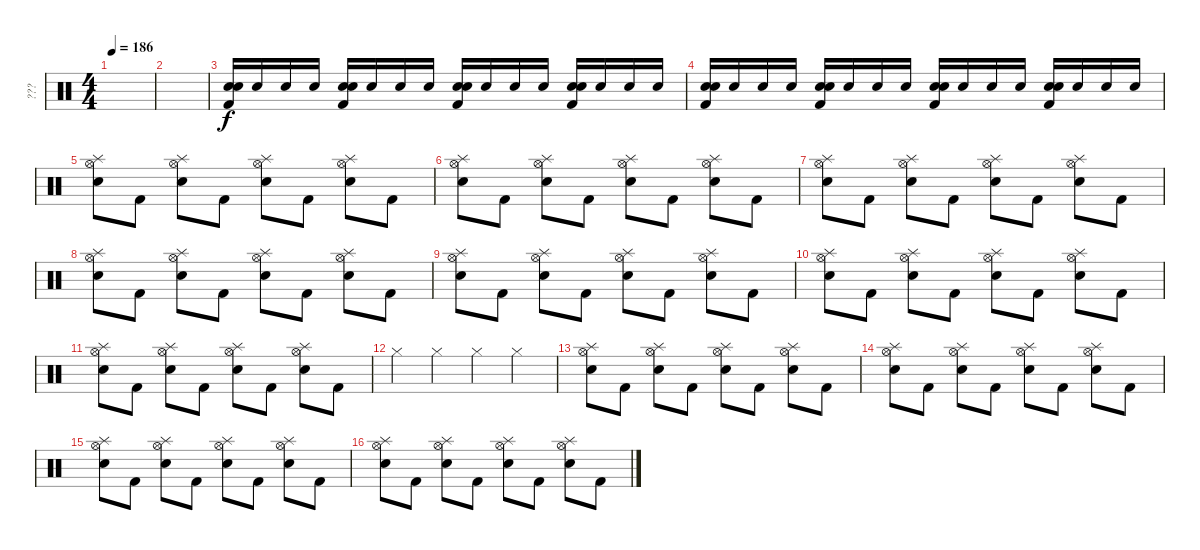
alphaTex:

\track ("???" "???") {instrument percussion}
\staff {score}
\articulation defaults
\ts (4 4)
\tempo 186
\clef neutral
\ks c
|
|
("Electric Snare (hit)" "Snare (hit) 2" "Kick (hit) 2").16{volume 9} "Snare (hit) 2".16 "Snare (hit) 2".16 "Snare (hit) 2".16 ("Electric Snare (hit)" "Snare (hit) 2" "Kick (hit) 2").16 "Snare (hit) 2".16 "Snare (hit) 2".16 "Snare (hit) 2".16 ("Electric Snare (hit)" "Snare (hit) 2" "Kick (hit) 2").16 "Snare (hit) 2".16 "Snare (hit) 2".16 "Snare (hit) 2".16 ("Electric Snare (hit)" "Snare (hit) 2" "Kick (hit) 2").16 "Snare (hit) 2".16 "Snare (hit) 2".16 "Snare (hit) 2".16 |
("Electric Snare (hit)" "Snare (hit) 2" "Kick (hit) 2").16{volume 9} "Snare (hit) 2".16 "Snare (hit) 2".16 "Snare (hit) 2".16 ("Electric Snare (hit)" "Snare (hit) 2" "Kick (hit) 2").16 "Snare (hit) 2".16 "Snare (hit) 2".16 "Snare (hit) 2".16 ("Electric Snare (hit)" "Snare (hit) 2" "Kick (hit) 2").16 "Snare (hit) 2".16 "Snare (hit) 2".16 "Snare (hit) 2".16 ("Electric Snare (hit)" "Snare (hit) 2" "Kick (hit) 2").16 "Snare (hit) 2".16 "Snare (hit) 2".16 "Snare (hit) 2".16 |
("Hi-Hat (open)" "Splash (hit)" "Snare (hit) 2").8{volume 9} "Kick (hit) 2".8 ("Hi-Hat (open)" "Splash (hit)" "Snare (hit) 2").8 "Kick (hit) 2".8 ("Hi-Hat (open)" "Splash (hit)" "Snare (hit) 2").8 "Kick (hit) 2".8 ("Hi-Hat (open)" "Splash (hit)" "Snare (hit) 2").8 "Kick (hit) 2".8 |
("Hi-Hat (open)" "Splash (hit)" "Snare (hit) 2").8{volume 9} "Kick (hit) 2".8 ("Hi-Hat (open)" "Splash (hit)" "Snare (hit) 2").8 "Kick (hit) 2".8 ("Hi-Hat (open)" "Splash (hit)" "Snare (hit) 2").8 "Kick (hit) 2".8 ("Hi-Hat (open)" "Splash (hit)" "Snare (hit) 2").8 "Kick (hit) 2".8 |
("Hi-Hat (open)" "Splash (hit)" "Snare (hit) 2").8{volume 9} "Kick (hit) 2".8 ("Hi-Hat (open)" "Splash (hit)" "Snare (hit) 2").8 "Kick (hit) 2".8 ("Hi-Hat (open)" "Splash (hit)" "Snare (hit) 2").8 "Kick (hit) 2".8 ("Hi-Hat (open)" "Splash (hit)" "Snare (hit) 2").8 "Kick (hit) 2".8 |
("Hi-Hat (open)" "Splash (hit)" "Snare (hit) 2").8{volume 9} "Kick (hit) 2".8 ("Hi-Hat (open)" "Splash (hit)" "Snare (hit) 2").8 "Kick (hit) 2".8 ("Hi-Hat (open)" "Splash (hit)" "Snare (hit) 2").8 "Kick (hit) 2".8 ("Hi-Hat (open)" "Splash (hit)" "Snare (hit) 2").8 "Kick (hit) 2".8 |
("Hi-Hat (open)" "Splash (hit)" "Snare (hit) 2").8{volume 9} "Kick (hit) 2".8 ("Hi-Hat (open)" "Splash (hit)" "Snare (hit) 2").8 "Kick (hit) 2".8 ("Hi-Hat (open)" "Splash (hit)" "Snare (hit) 2").8 "Kick (hit) 2".8 ("Hi-Hat (open)" "Splash (hit)" "Snare (hit) 2").8 "Kick (hit) 2".8 |
("Hi-Hat (open)" "Splash (hit)" "Snare (hit) 2").8{volume 9} "Kick (hit) 2".8 ("Hi-Hat (open)" "Splash (hit)" "Snare (hit) 2").8 "Kick (hit) 2".8 ("Hi-Hat (open)" "Splash (hit)" "Snare (hit) 2").8 "Kick (hit) 2".8 ("Hi-Hat (open)" "Splash (hit)" "Snare (hit) 2").8 "Kick (hit) 2".8 |
("Hi-Hat (open)" "Splash (hit)" "Snare (hit) 2").8{volume 9} "Kick (hit) 2".8 ("Hi-Hat (open)" "Splash (hit)" "Snare (hit) 2").8 "Kick (hit) 2".8 ("Hi-Hat (open)" "Splash (hit)" "Snare (hit) 2").8 "Kick (hit) 2".8 ("Hi-Hat (open)" "Splash (hit)" "Snare (hit) 2").8 "Kick (hit) 2".8 |
"Hi-Hat (closed)".4 "Hi-Hat (closed)".4 "Hi-Hat (closed)".4 "Hi-Hat (closed)".4 |
("Hi-Hat (open)" "Splash (hit)" "Snare (hit) 2").8{volume 9} "Kick (hit) 2".8 ("Hi-Hat (open)" "Splash (hit)" "Snare (hit) 2").8 "Kick (hit) 2".8 ("Hi-Hat (open)" "Splash (hit)" "Snare (hit) 2").8 "Kick (hit) 2".8 ("Hi-Hat (open)" "Splash (hit)" "Snare (hit) 2").8 "Kick (hit) 2".8 |
("Hi-Hat (open)" "Splash (hit)" "Snare (hit) 2").8{volume 9} "Kick (hit) 2".8 ("Hi-Hat (open)" "Splash (hit)" "Snare (hit) 2").8 "Kick (hit) 2".8 ("Hi-Hat (open)" "Splash (hit)" "Snare (hit) 2").8 "Kick (hit) 2".8 ("Hi-Hat (open)" "Splash (hit)" "Snare (hit) 2").8 "Kick (hit) 2".8 |
("Hi-Hat (open)" "Splash (hit)" "Snare (hit) 2").8{volume 9} "Kick (hit) 2".8 ("Hi-Hat (open)" "Splash (hit)" "Snare (hit) 2").8 "Kick (hit) 2".8 ("Hi-Hat (open)" "Splash (hit)" "Snare (hit) 2").8 "Kick (hit) 2".8 ("Hi-Hat (open)" "Splash (hit)" "Snare (hit) 2").8 "Kick (hit) 2".8 |
("Hi-Hat (open)" "Splash (hit)" "Snare (hit) 2").8{volume 9} "Kick (hit) 2".8 ("Hi-Hat (open)" "Splash (hit)" "Snare (hit) 2").8 "Kick (hit) 2".8 ("Hi-Hat (open)" "Splash (hit)" "Snare (hit) 2").8 "Kick (hit) 2".8 ("Hi-Hat (open)" "Splash (hit)" "Snare (hit) 2").8 "Kick (hit) 2".8
